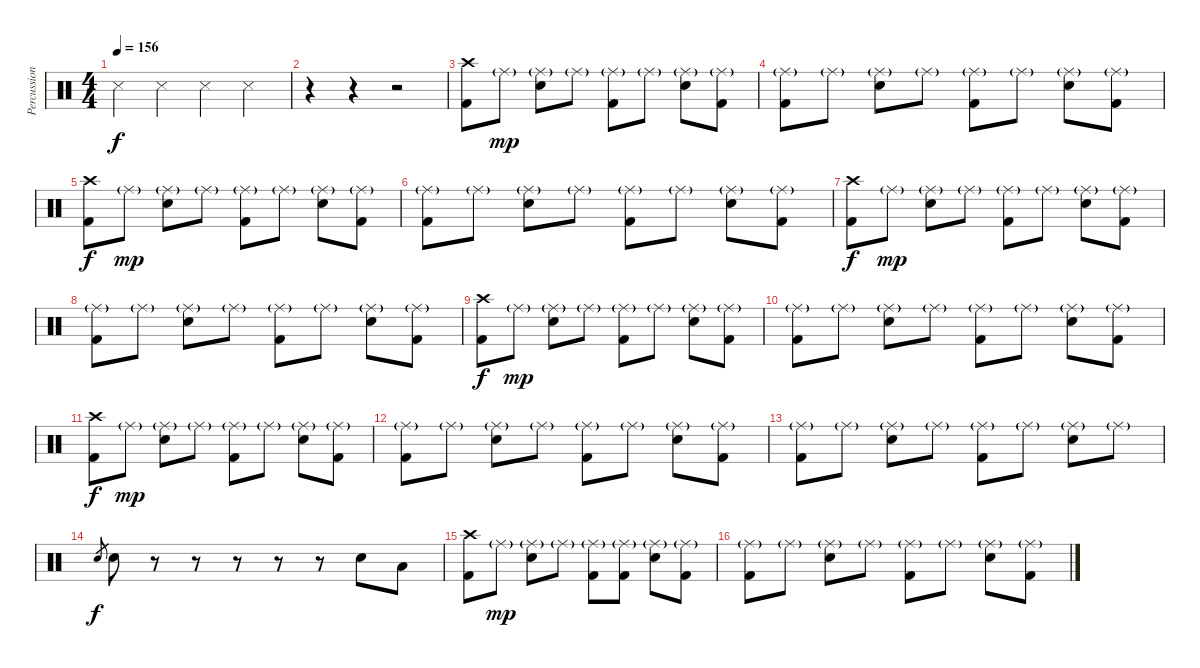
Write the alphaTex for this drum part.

\track ("Percussion" "Percussion") {instrument percussion}
\staff {score}
\articulation defaults
\ts (4 4)
\tempo 156
\clef neutral
\ks c "Snare (side stick) 3".4{dy f} "Snare (side stick) 3".4 "Snare (side stick) 3".4 "Snare (side stick) 3".4
|
r.4 r.4 r.2 |
("Crash high (hit)" "Kick (hit) 2").8 "Ride (middle)"{g}.8{dy mp} ("Ride (middle)"{g} "Electric Snare (hit)").8 "Ride (middle)"{g}.8 ("Ride (middle)"{g} "Kick (hit) 2").8 "Ride (middle)"{g}.8 ("Ride (middle)"{g} "Electric Snare (hit)").8 ("Ride (middle)"{g} "Kick (hit) 2").8 |
("Ride (middle)"{g} "Kick (hit) 2").8 "Ride (middle)"{g}.8 ("Ride (middle)"{g} "Electric Snare (hit)").8 "Ride (middle)"{g}.8 ("Ride (middle)"{g} "Kick (hit) 2").8 "Ride (middle)"{g}.8 ("Ride (middle)"{g} "Electric Snare (hit)").8 ("Ride (middle)"{g} "Kick (hit) 2").8 |
("Crash high (hit)" "Kick (hit) 2").8{dy f} "Ride (middle)"{g}.8{dy mp} ("Ride (middle)"{g} "Electric Snare (hit)").8 "Ride (middle)"{g}.8 ("Ride (middle)"{g} "Kick (hit) 2").8 "Ride (middle)"{g}.8 ("Ride (middle)"{g} "Electric Snare (hit)").8 ("Ride (middle)"{g} "Kick (hit) 2").8 |
("Ride (middle)"{g} "Kick (hit) 2").8 "Ride (middle)"{g}.8 ("Ride (middle)"{g} "Electric Snare (hit)").8 "Ride (middle)"{g}.8 ("Ride (middle)"{g} "Kick (hit) 2").8 "Ride (middle)"{g}.8 ("Ride (middle)"{g} "Electric Snare (hit)").8 ("Ride (middle)"{g} "Kick (hit) 2").8 |
("Crash high (hit)" "Kick (hit) 2").8{dy f} "Ride (middle)"{g}.8{dy mp} ("Ride (middle)"{g} "Electric Snare (hit)").8 "Ride (middle)"{g}.8 ("Ride (middle)"{g} "Kick (hit) 2").8 "Ride (middle)"{g}.8 ("Ride (middle)"{g} "Electric Snare (hit)").8 ("Ride (middle)"{g} "Kick (hit) 2").8 |
("Ride (middle)"{g} "Kick (hit) 2").8 "Ride (middle)"{g}.8 ("Ride (middle)"{g} "Electric Snare (hit)").8 "Ride (middle)"{g}.8 ("Ride (middle)"{g} "Kick (hit) 2").8 "Ride (middle)"{g}.8 ("Ride (middle)"{g} "Electric Snare (hit)").8 ("Ride (middle)"{g} "Kick (hit) 2").8 |
("Crash high (hit)" "Kick (hit) 2").8{dy f} "Ride (middle)"{g}.8{dy mp} ("Ride (middle)"{g} "Electric Snare (hit)").8 "Ride (middle)"{g}.8 ("Ride (middle)"{g} "Kick (hit) 2").8 "Ride (middle)"{g}.8 ("Ride (middle)"{g} "Electric Snare (hit)").8 ("Ride (middle)"{g} "Kick (hit) 2").8 |
("Ride (middle)"{g} "Kick (hit) 2").8 "Ride (middle)"{g}.8 ("Ride (middle)"{g} "Electric Snare (hit)").8 "Ride (middle)"{g}.8 ("Ride (middle)"{g} "Kick (hit) 2").8 "Ride (middle)"{g}.8 ("Ride (middle)"{g} "Electric Snare (hit)").8 ("Ride (middle)"{g} "Kick (hit) 2").8 |
("Crash high (hit)" "Kick (hit) 2").8{dy f} "Ride (middle)"{g}.8{dy mp} ("Ride (middle)"{g} "Electric Snare (hit)").8 "Ride (middle)"{g}.8 ("Ride (middle)"{g} "Kick (hit) 2").8 "Ride (middle)"{g}.8 ("Ride (middle)"{g} "Electric Snare (hit)").8 ("Ride (middle)"{g} "Kick (hit) 2").8 |
("Ride (middle)"{g} "Kick (hit) 2").8 "Ride (middle)"{g}.8 ("Ride (middle)"{g} "Electric Snare (hit)").8 "Ride (middle)"{g}.8 ("Ride (middle)"{g} "Kick (hit) 2").8 "Ride (middle)"{g}.8 ("Ride (middle)"{g} "Electric Snare (hit)").8 ("Ride (middle)"{g} "Kick (hit) 2").8 |
("Ride (middle)"{g} "Kick (hit) 2").8 "Ride (middle)"{g}.8 ("Ride (middle)"{g} "Electric Snare (hit)").8 "Ride (middle)"{g}.8 ("Ride (middle)"{g} "Kick (hit) 2").8 "Ride (middle)"{g}.8 ("Ride (middle)"{g} "Electric Snare (hit)").8 "Ride (middle)"{g}.8 |
"Electric Snare (hit)".8{gr dy f} "Electric Snare (hit)".8 r.8 r.8 r.8 r.8 r.8 "Electric Snare (hit)".8 "Low Tom (hit)".8 |
("Crash high (hit)" "Kick (hit) 2").8 "Ride (middle)"{g}.8{dy mp} ("Ride (middle)"{g} "Electric Snare (hit)").8 "Ride (middle)"{g}.8 ("Ride (middle)"{g} "Kick (hit) 2").8 ("Ride (middle)"{g} "Kick (hit) 2").8 ("Ride (middle)"{g} "Electric Snare (hit)").8 ("Ride (middle)"{g} "Kick (hit) 2").8 |
("Ride (middle)"{g} "Kick (hit) 2").8 "Ride (middle)"{g}.8 ("Ride (middle)"{g} "Electric Snare (hit)").8 "Ride (middle)"{g}.8 ("Ride (middle)"{g} "Kick (hit) 2").8 "Ride (middle)"{g}.8 ("Ride (middle)"{g} "Electric Snare (hit)").8 ("Ride (middle)"{g} "Kick (hit) 2").8
